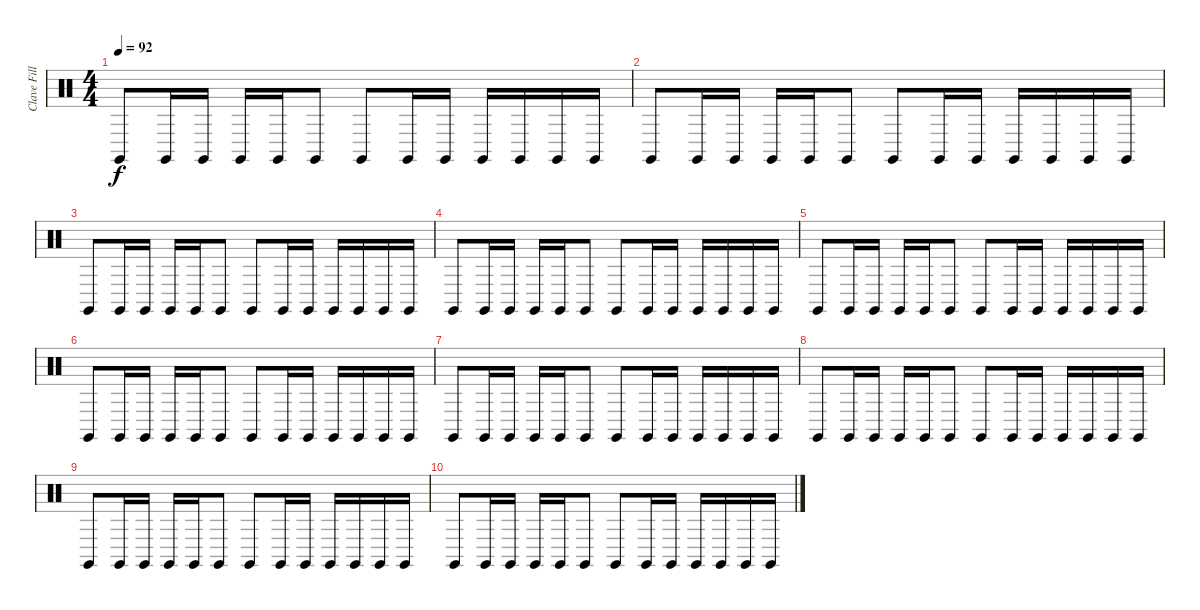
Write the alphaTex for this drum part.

\track ("Clave Fills" "Clave Fill") {instrument percussion}
\staff {score}
\articulation defaults
\ts (4 4)
\tempo 92
\clef neutral
\ks c "Claves (hit)".8{dy f} "Claves (hit)".16 "Claves (hit)".16 "Claves (hit)".16 "Claves (hit)".16 "Claves (hit)".8 "Claves (hit)".8 "Claves (hit)".16 "Claves (hit)".16 "Claves (hit)".16 "Claves (hit)".16 "Claves (hit)".16 "Claves (hit)".16
|
"Claves (hit)".8 "Claves (hit)".16 "Claves (hit)".16 "Claves (hit)".16 "Claves (hit)".16 "Claves (hit)".8 "Claves (hit)".8 "Claves (hit)".16 "Claves (hit)".16 "Claves (hit)".16 "Claves (hit)".16 "Claves (hit)".16 "Claves (hit)".16 |
"Claves (hit)".8 "Claves (hit)".16 "Claves (hit)".16 "Claves (hit)".16 "Claves (hit)".16 "Claves (hit)".8 "Claves (hit)".8 "Claves (hit)".16 "Claves (hit)".16 "Claves (hit)".16 "Claves (hit)".16 "Claves (hit)".16 "Claves (hit)".16 |
"Claves (hit)".8 "Claves (hit)".16 "Claves (hit)".16 "Claves (hit)".16 "Claves (hit)".16 "Claves (hit)".8 "Claves (hit)".8 "Claves (hit)".16 "Claves (hit)".16 "Claves (hit)".16 "Claves (hit)".16 "Claves (hit)".16 "Claves (hit)".16 |
"Claves (hit)".8 "Claves (hit)".16 "Claves (hit)".16 "Claves (hit)".16 "Claves (hit)".16 "Claves (hit)".8 "Claves (hit)".8 "Claves (hit)".16 "Claves (hit)".16 "Claves (hit)".16 "Claves (hit)".16 "Claves (hit)".16 "Claves (hit)".16 |
"Claves (hit)".8 "Claves (hit)".16 "Claves (hit)".16 "Claves (hit)".16 "Claves (hit)".16 "Claves (hit)".8 "Claves (hit)".8 "Claves (hit)".16 "Claves (hit)".16 "Claves (hit)".16 "Claves (hit)".16 "Claves (hit)".16 "Claves (hit)".16 |
"Claves (hit)".8 "Claves (hit)".16 "Claves (hit)".16 "Claves (hit)".16 "Claves (hit)".16 "Claves (hit)".8 "Claves (hit)".8 "Claves (hit)".16 "Claves (hit)".16 "Claves (hit)".16 "Claves (hit)".16 "Claves (hit)".16 "Claves (hit)".16 |
"Claves (hit)".8 "Claves (hit)".16 "Claves (hit)".16 "Claves (hit)".16 "Claves (hit)".16 "Claves (hit)".8 "Claves (hit)".8 "Claves (hit)".16 "Claves (hit)".16 "Claves (hit)".16 "Claves (hit)".16 "Claves (hit)".16 "Claves (hit)".16 |
"Claves (hit)".8 "Claves (hit)".16 "Claves (hit)".16 "Claves (hit)".16 "Claves (hit)".16 "Claves (hit)".8 "Claves (hit)".8 "Claves (hit)".16 "Claves (hit)".16 "Claves (hit)".16 "Claves (hit)".16 "Claves (hit)".16 "Claves (hit)".16 |
"Claves (hit)".8 "Claves (hit)".16 "Claves (hit)".16 "Claves (hit)".16 "Claves (hit)".16 "Claves (hit)".8 "Claves (hit)".8 "Claves (hit)".16 "Claves (hit)".16 "Claves (hit)".16 "Claves (hit)".16 "Claves (hit)".16 "Claves (hit)".16
